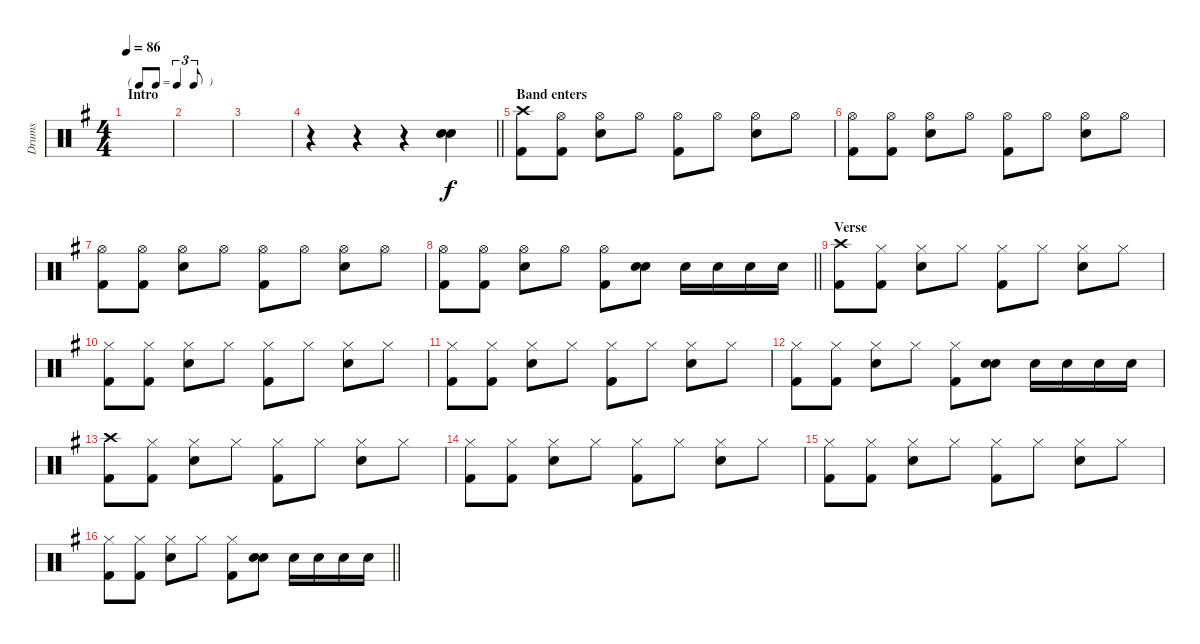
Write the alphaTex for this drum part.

\track ("Drums" "Drums") {instrument percussion}
\staff {score}
\articulation defaults
\ts (4 4)
\tf triplet8th
\section ("" "Intro")
\tempo 86
\clef neutral
\ks g
|
|
|
\barLineRight lightlight
r.4 r.4 r.4 ("Snare (hit) 2" "Snare (hit) 2").4 |
\section ("" "Band enters")
("Crash high (hit)" "Kick (hit) 2").8 ("Hi-Hat (open)" "Kick (hit) 2").8 ("Hi-Hat (open)" "Snare (hit) 2").8 "Hi-Hat (open)".8 ("Hi-Hat (open)" "Kick (hit) 2").8 "Hi-Hat (open)".8 ("Hi-Hat (open)" "Snare (hit) 2").8 "Hi-Hat (open)".8 |
("Hi-Hat (open)" "Kick (hit) 2").8 ("Hi-Hat (open)" "Kick (hit) 2").8 ("Hi-Hat (open)" "Snare (hit) 2").8 "Hi-Hat (open)".8 ("Hi-Hat (open)" "Kick (hit) 2").8 "Hi-Hat (open)".8 ("Hi-Hat (open)" "Snare (hit) 2").8 "Hi-Hat (open)".8 |
("Hi-Hat (open)" "Kick (hit) 2").8 ("Hi-Hat (open)" "Kick (hit) 2").8 ("Hi-Hat (open)" "Snare (hit) 2").8 "Hi-Hat (open)".8 ("Hi-Hat (open)" "Kick (hit) 2").8 "Hi-Hat (open)".8 ("Hi-Hat (open)" "Snare (hit) 2").8 "Hi-Hat (open)".8 |
\barLineRight lightlight
("Hi-Hat (open)" "Kick (hit) 2").8 ("Hi-Hat (open)" "Kick (hit) 2").8 ("Hi-Hat (open)" "Snare (hit) 2").8 "Hi-Hat (open)".8 ("Hi-Hat (open)" "Kick (hit) 2").8 ("Snare (hit) 2" "Snare (hit) 2").8 "Snare (hit) 2".16 "Snare (hit) 2".16 "Snare (hit) 2".16 "Snare (hit) 2".16 |
\section ("" "Verse")
("Crash high (hit)" "Kick (hit) 2").8 ("Hi-Hat (closed)" "Kick (hit) 2").8 ("Hi-Hat (closed)" "Snare (hit) 2").8 "Hi-Hat (closed)".8 ("Hi-Hat (closed)" "Kick (hit) 2").8 "Hi-Hat (closed)".8 ("Hi-Hat (closed)" "Snare (hit) 2").8 "Hi-Hat (closed)".8 |
("Hi-Hat (closed)" "Kick (hit) 2").8 ("Hi-Hat (closed)" "Kick (hit) 2").8 ("Hi-Hat (closed)" "Snare (hit) 2").8 "Hi-Hat (closed)".8 ("Hi-Hat (closed)" "Kick (hit) 2").8 "Hi-Hat (closed)".8 ("Hi-Hat (closed)" "Snare (hit) 2").8 "Hi-Hat (closed)".8 |
("Hi-Hat (closed)" "Kick (hit) 2").8 ("Hi-Hat (closed)" "Kick (hit) 2").8 ("Hi-Hat (closed)" "Snare (hit) 2").8 "Hi-Hat (closed)".8 ("Hi-Hat (closed)" "Kick (hit) 2").8 "Hi-Hat (closed)".8 ("Hi-Hat (closed)" "Snare (hit) 2").8 "Hi-Hat (closed)".8 |
("Hi-Hat (closed)" "Kick (hit) 2").8 ("Hi-Hat (closed)" "Kick (hit) 2").8 ("Hi-Hat (closed)" "Snare (hit) 2").8 "Hi-Hat (closed)".8 ("Hi-Hat (closed)" "Kick (hit) 2").8 ("Snare (hit) 2" "Snare (hit) 2").8 "Snare (hit) 2".16 "Snare (hit) 2".16 "Snare (hit) 2".16 "Snare (hit) 2".16 |
("Crash high (hit)" "Kick (hit) 2").8 ("Hi-Hat (closed)" "Kick (hit) 2").8 ("Hi-Hat (closed)" "Snare (hit) 2").8 "Hi-Hat (closed)".8 ("Hi-Hat (closed)" "Kick (hit) 2").8 "Hi-Hat (closed)".8 ("Hi-Hat (closed)" "Snare (hit) 2").8 "Hi-Hat (closed)".8 |
("Hi-Hat (closed)" "Kick (hit) 2").8 ("Hi-Hat (closed)" "Kick (hit) 2").8 ("Hi-Hat (closed)" "Snare (hit) 2").8 "Hi-Hat (closed)".8 ("Hi-Hat (closed)" "Kick (hit) 2").8 "Hi-Hat (closed)".8 ("Hi-Hat (closed)" "Snare (hit) 2").8 "Hi-Hat (closed)".8 |
("Hi-Hat (closed)" "Kick (hit) 2").8 ("Hi-Hat (closed)" "Kick (hit) 2").8 ("Hi-Hat (closed)" "Snare (hit) 2").8 "Hi-Hat (closed)".8 ("Hi-Hat (closed)" "Kick (hit) 2").8 "Hi-Hat (closed)".8 ("Hi-Hat (closed)" "Snare (hit) 2").8 "Hi-Hat (closed)".8 |
\barLineRight lightlight
("Hi-Hat (closed)" "Kick (hit) 2").8 ("Hi-Hat (closed)" "Kick (hit) 2").8 ("Hi-Hat (closed)" "Snare (hit) 2").8 "Hi-Hat (closed)".8 ("Hi-Hat (closed)" "Kick (hit) 2").8 ("Snare (hit) 2" "Snare (hit) 2").8 "Snare (hit) 2".16 "Snare (hit) 2".16 "Snare (hit) 2".16 "Snare (hit) 2".16
